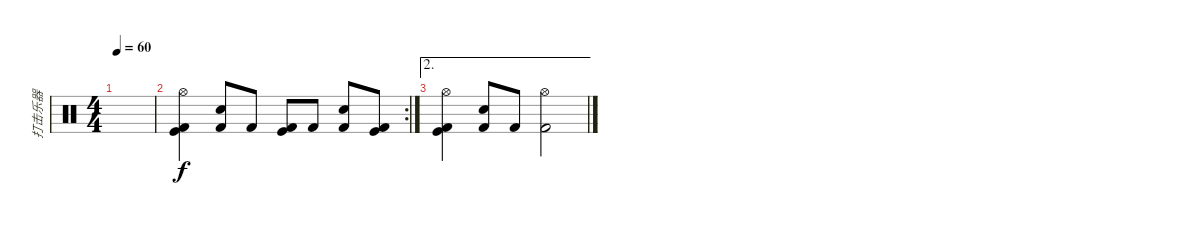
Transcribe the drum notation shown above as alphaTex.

\track ("打击乐器" "打击乐器") {instrument percussion}
\staff {score}
\articulation defaults
\ts (4 4)
\tempo 60
\clef neutral
\ks c
|
\rc 2
("Kick (hit) 2" "Kick (hit)" "Hi-Hat (open)").4 ("Kick (hit) 2" "Electric Snare (hit)").8 "Kick (hit) 2".8 ("Kick (hit) 2" "Kick (hit)").8 "Kick (hit) 2".8 ("Kick (hit) 2" "Electric Snare (hit)").8 ("Kick (hit) 2" "Kick (hit)").8 |
\ae 2
("Kick (hit) 2" "Kick (hit)" "Hi-Hat (open)").4 ("Kick (hit) 2" "Electric Snare (hit)").8 "Kick (hit) 2".8 ("Hi-Hat (open)" "Kick (hit) 2").2
